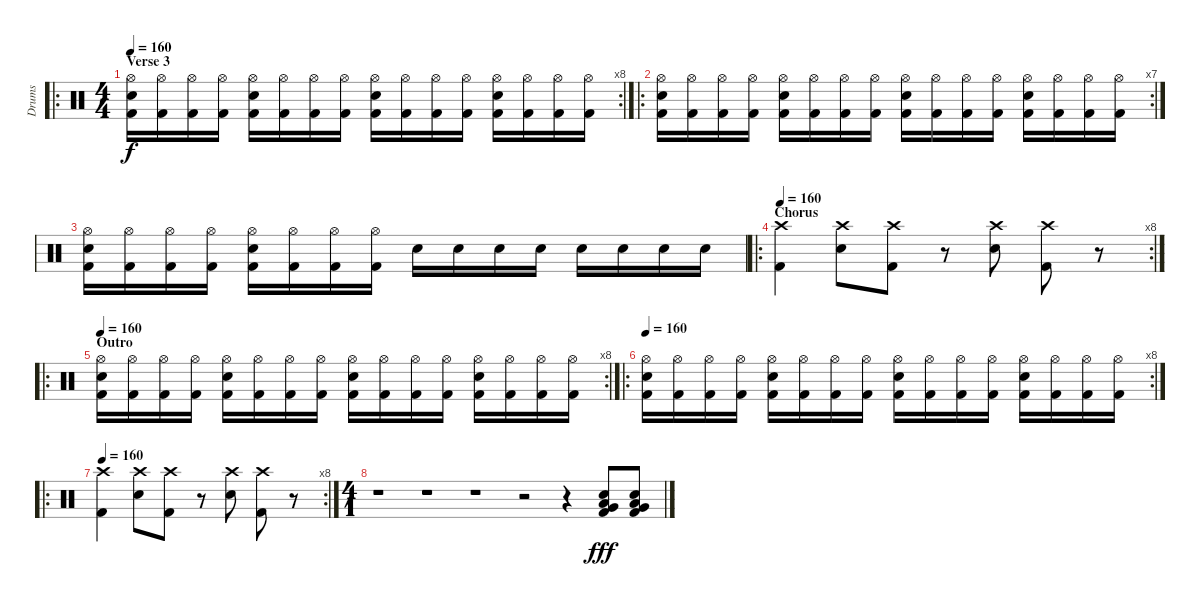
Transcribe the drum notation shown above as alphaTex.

\track ("Drums" "Drums") {instrument percussion}
\staff {score}
\articulation defaults
\ro
\rc 8
\ts (4 4)
\section ("" "Verse 3")
\tempo 160
\clef neutral
\ks c
("Kick (hit) 2" "Hi-Hat (open)" "Electric Snare (hit)").16{dy f} ("Kick (hit) 2" "Hi-Hat (open)").16 ("Kick (hit) 2" "Hi-Hat (open)").16 ("Kick (hit) 2" "Hi-Hat (open)").16 ("Kick (hit) 2" "Hi-Hat (open)" "Electric Snare (hit)").16 ("Kick (hit) 2" "Hi-Hat (open)").16 ("Kick (hit) 2" "Hi-Hat (open)").16 ("Kick (hit) 2" "Hi-Hat (open)").16 ("Kick (hit) 2" "Hi-Hat (open)" "Electric Snare (hit)").16 ("Kick (hit) 2" "Hi-Hat (open)").16 ("Kick (hit) 2" "Hi-Hat (open)").16 ("Kick (hit) 2" "Hi-Hat (open)").16 ("Kick (hit) 2" "Hi-Hat (open)" "Electric Snare (hit)").16 ("Kick (hit) 2" "Hi-Hat (open)").16 ("Kick (hit) 2" "Hi-Hat (open)").16 ("Kick (hit) 2" "Hi-Hat (open)").16 |
\ro
\rc 7
("Kick (hit) 2" "Hi-Hat (open)" "Electric Snare (hit)").16 ("Kick (hit) 2" "Hi-Hat (open)").16 ("Kick (hit) 2" "Hi-Hat (open)").16 ("Kick (hit) 2" "Hi-Hat (open)").16 ("Kick (hit) 2" "Hi-Hat (open)" "Electric Snare (hit)").16 ("Kick (hit) 2" "Hi-Hat (open)").16 ("Kick (hit) 2" "Hi-Hat (open)").16 ("Kick (hit) 2" "Hi-Hat (open)").16 ("Kick (hit) 2" "Hi-Hat (open)" "Electric Snare (hit)").16 ("Kick (hit) 2" "Hi-Hat (open)").16 ("Kick (hit) 2" "Hi-Hat (open)").16 ("Kick (hit) 2" "Hi-Hat (open)").16 ("Kick (hit) 2" "Hi-Hat (open)" "Electric Snare (hit)").16 ("Kick (hit) 2" "Hi-Hat (open)").16 ("Kick (hit) 2" "Hi-Hat (open)").16 ("Kick (hit) 2" "Hi-Hat (open)").16 |
("Kick (hit) 2" "Hi-Hat (open)" "Electric Snare (hit)").16 ("Kick (hit) 2" "Hi-Hat (open)").16 ("Kick (hit) 2" "Hi-Hat (open)").16 ("Kick (hit) 2" "Hi-Hat (open)").16 ("Kick (hit) 2" "Hi-Hat (open)" "Electric Snare (hit)").16 ("Kick (hit) 2" "Hi-Hat (open)").16 ("Kick (hit) 2" "Hi-Hat (open)").16 ("Kick (hit) 2" "Hi-Hat (open)").16 "Electric Snare (hit)".16 "Electric Snare (hit)".16 "Electric Snare (hit)".16 "Electric Snare (hit)".16 "Electric Snare (hit)".16 "Electric Snare (hit)".16 "Electric Snare (hit)".16 "Electric Snare (hit)".16 |
\ro
\rc 8
\section ("" "Chorus")
\tempo 160
("Crash high (hit)" "Kick (hit) 2").4 ("Crash high (hit)" "Electric Snare (hit)").8 ("Crash high (hit)" "Kick (hit) 2").8 r.8 ("Crash high (hit)" "Electric Snare (hit)").8 ("Crash high (hit)" "Kick (hit) 2").8 r.8 |
\ro
\rc 8
\section ("" "Outro")
\tempo 160
("Kick (hit) 2" "Hi-Hat (open)" "Electric Snare (hit)").16 ("Kick (hit) 2" "Hi-Hat (open)").16 ("Kick (hit) 2" "Hi-Hat (open)").16 ("Kick (hit) 2" "Hi-Hat (open)").16 ("Kick (hit) 2" "Hi-Hat (open)" "Electric Snare (hit)").16 ("Kick (hit) 2" "Hi-Hat (open)").16 ("Kick (hit) 2" "Hi-Hat (open)").16 ("Kick (hit) 2" "Hi-Hat (open)").16 ("Kick (hit) 2" "Hi-Hat (open)" "Electric Snare (hit)").16 ("Kick (hit) 2" "Hi-Hat (open)").16 ("Kick (hit) 2" "Hi-Hat (open)").16 ("Kick (hit) 2" "Hi-Hat (open)").16 ("Kick (hit) 2" "Hi-Hat (open)" "Electric Snare (hit)").16 ("Kick (hit) 2" "Hi-Hat (open)").16 ("Kick (hit) 2" "Hi-Hat (open)").16 ("Kick (hit) 2" "Hi-Hat (open)").16 |
\ro
\rc 8
\tempo 160
("Kick (hit) 2" "Hi-Hat (open)" "Electric Snare (hit)").16 ("Kick (hit) 2" "Hi-Hat (open)").16 ("Kick (hit) 2" "Hi-Hat (open)").16 ("Kick (hit) 2" "Hi-Hat (open)").16 ("Kick (hit) 2" "Hi-Hat (open)" "Electric Snare (hit)").16 ("Kick (hit) 2" "Hi-Hat (open)").16 ("Kick (hit) 2" "Hi-Hat (open)").16 ("Kick (hit) 2" "Hi-Hat (open)").16 ("Kick (hit) 2" "Hi-Hat (open)" "Electric Snare (hit)").16 ("Kick (hit) 2" "Hi-Hat (open)").16 ("Kick (hit) 2" "Hi-Hat (open)").16 ("Kick (hit) 2" "Hi-Hat (open)").16 ("Kick (hit) 2" "Hi-Hat (open)" "Electric Snare (hit)").16 ("Kick (hit) 2" "Hi-Hat (open)").16 ("Kick (hit) 2" "Hi-Hat (open)").16 ("Kick (hit) 2" "Hi-Hat (open)").16 |
\ro
\rc 8
\tempo 160
("Crash high (hit)" "Kick (hit) 2").4 ("Crash high (hit)" "Electric Snare (hit)").8 ("Crash high (hit)" "Kick (hit) 2").8 r.8 ("Crash high (hit)" "Electric Snare (hit)").8 ("Crash high (hit)" "Kick (hit) 2").8 r.8 |
\ts (4 1)
r.1 r.1 r.1 r.2 r.4 ("Very Low Tom (hit)" "Low Tom (hit)" "Electric Snare (hit)" "Kick (hit) 2").8{dy fff} ("Very Low Tom (hit)" "Low Tom (hit)" "Electric Snare (hit)" "Kick (hit) 2").8
